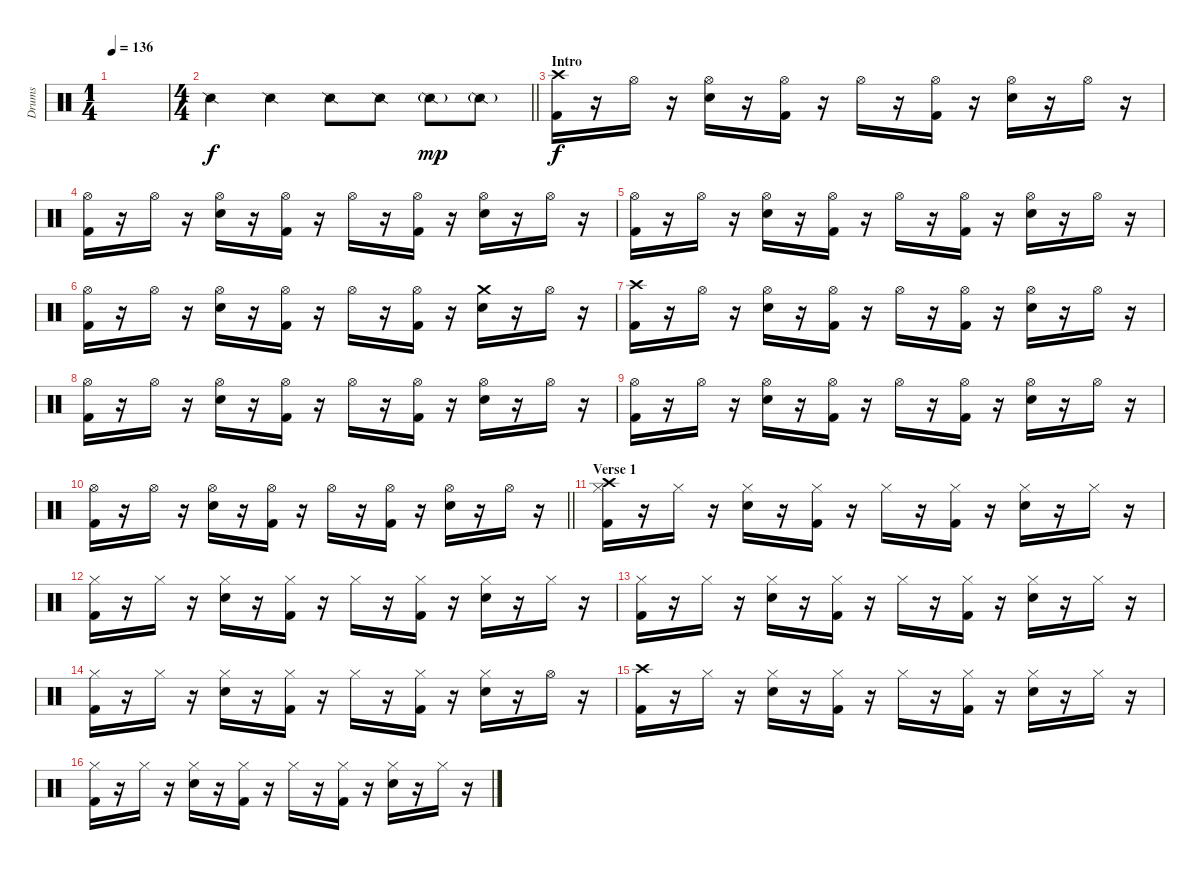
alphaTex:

\track ("Drums" "Drums") {instrument percussion}
\staff {score}
\articulation defaults
\ts (1 4)
\tempo 136
\clef neutral
\ks c
|
\ts (4 4)
\barLineRight lightlight "Snare (side stick) 2".4 "Snare (side stick) 2".4 "Snare (side stick) 2".8 "Snare (side stick) 2".8 "Snare (side stick) 2"{g}.8{dy mp} "Snare (side stick) 2"{g}.8
|
\section ("" "Intro")
("Kick (hit) 2" "Crash high (hit)").16{dy f} r.16 "Hi-Hat (open)".16 r.16 ("Electric Snare (hit)" "Hi-Hat (open)").16 r.16 ("Kick (hit) 2" "Hi-Hat (open)").16 r.16 "Hi-Hat (open)".16 r.16 ("Kick (hit) 2" "Hi-Hat (open)").16 r.16 ("Electric Snare (hit)" "Hi-Hat (open)").16 r.16 "Hi-Hat (open)".16 r.16 |
("Kick (hit) 2" "Hi-Hat (open)").16 r.16 "Hi-Hat (open)".16 r.16 ("Electric Snare (hit)" "Hi-Hat (open)").16 r.16 ("Kick (hit) 2" "Hi-Hat (open)").16 r.16 "Hi-Hat (open)".16 r.16 ("Kick (hit) 2" "Hi-Hat (open)").16 r.16 ("Electric Snare (hit)" "Hi-Hat (open)").16 r.16 "Hi-Hat (open)".16 r.16 |
("Kick (hit) 2" "Hi-Hat (open)").16 r.16 "Hi-Hat (open)".16 r.16 ("Electric Snare (hit)" "Hi-Hat (open)").16 r.16 ("Kick (hit) 2" "Hi-Hat (open)").16 r.16 "Hi-Hat (open)".16 r.16 ("Kick (hit) 2" "Hi-Hat (open)").16 r.16 ("Electric Snare (hit)" "Hi-Hat (open)").16 r.16 "Hi-Hat (open)".16 r.16 |
("Kick (hit) 2" "Hi-Hat (open)").16 r.16 "Hi-Hat (open)".16 r.16 ("Electric Snare (hit)" "Hi-Hat (open)").16 r.16 ("Kick (hit) 2" "Hi-Hat (open)").16 r.16 "Hi-Hat (open)".16 r.16 ("Kick (hit) 2" "Hi-Hat (open)").16 r.16 ("Electric Snare (hit)" "Crash medium (hit)").16 r.16 "Hi-Hat (open)".16 r.16 |
("Kick (hit) 2" "Crash high (hit)").16 r.16 "Hi-Hat (open)".16 r.16 ("Electric Snare (hit)" "Hi-Hat (open)").16 r.16 ("Kick (hit) 2" "Hi-Hat (open)").16 r.16 "Hi-Hat (open)".16 r.16 ("Kick (hit) 2" "Hi-Hat (open)").16 r.16 ("Electric Snare (hit)" "Hi-Hat (open)").16 r.16 "Hi-Hat (open)".16 r.16 |
("Kick (hit) 2" "Hi-Hat (open)").16 r.16 "Hi-Hat (open)".16 r.16 ("Electric Snare (hit)" "Hi-Hat (open)").16 r.16 ("Kick (hit) 2" "Hi-Hat (open)").16 r.16 "Hi-Hat (open)".16 r.16 ("Kick (hit) 2" "Hi-Hat (open)").16 r.16 ("Electric Snare (hit)" "Hi-Hat (open)").16 r.16 "Hi-Hat (open)".16 r.16 |
("Kick (hit) 2" "Hi-Hat (open)").16 r.16 "Hi-Hat (open)".16 r.16 ("Electric Snare (hit)" "Hi-Hat (open)").16 r.16 ("Kick (hit) 2" "Hi-Hat (open)").16 r.16 "Hi-Hat (open)".16 r.16 ("Kick (hit) 2" "Hi-Hat (open)").16 r.16 ("Electric Snare (hit)" "Hi-Hat (open)").16 r.16 "Hi-Hat (open)".16 r.16 |
\barLineRight lightlight
("Kick (hit) 2" "Hi-Hat (open)").16 r.16 "Hi-Hat (open)".16 r.16 ("Electric Snare (hit)" "Hi-Hat (open)").16 r.16 ("Kick (hit) 2" "Hi-Hat (open)").16 r.16 "Hi-Hat (open)".16 r.16 ("Kick (hit) 2" "Hi-Hat (open)").16 r.16 ("Electric Snare (hit)" "Hi-Hat (open)").16 r.16 "Hi-Hat (open)".16 r.16 |
\section ("" "Verse 1")
("Kick (hit) 2" "Hi-Hat (closed)" "Crash high (hit)").16 r.16 "Hi-Hat (closed)".16 r.16 ("Electric Snare (hit)" "Hi-Hat (closed)").16 r.16 ("Kick (hit) 2" "Hi-Hat (closed)").16 r.16 "Hi-Hat (closed)".16 r.16 ("Kick (hit) 2" "Hi-Hat (closed)").16 r.16 ("Electric Snare (hit)" "Hi-Hat (closed)").16 r.16 "Hi-Hat (closed)".16 r.16 |
("Kick (hit) 2" "Hi-Hat (closed)").16 r.16 "Hi-Hat (closed)".16 r.16 ("Electric Snare (hit)" "Hi-Hat (closed)").16 r.16 ("Kick (hit) 2" "Hi-Hat (closed)").16 r.16 "Hi-Hat (closed)".16 r.16 ("Kick (hit) 2" "Hi-Hat (closed)").16 r.16 ("Electric Snare (hit)" "Hi-Hat (closed)").16 r.16 "Hi-Hat (closed)".16 r.16 |
("Kick (hit) 2" "Hi-Hat (closed)").16 r.16 "Hi-Hat (closed)".16 r.16 ("Electric Snare (hit)" "Hi-Hat (closed)").16 r.16 ("Kick (hit) 2" "Hi-Hat (closed)").16 r.16 "Hi-Hat (closed)".16 r.16 ("Kick (hit) 2" "Hi-Hat (closed)").16 r.16 ("Electric Snare (hit)" "Hi-Hat (closed)").16 r.16 "Hi-Hat (closed)".16 r.16 |
("Kick (hit) 2" "Hi-Hat (closed)").16 r.16 "Hi-Hat (closed)".16 r.16 ("Electric Snare (hit)" "Hi-Hat (closed)").16 r.16 ("Kick (hit) 2" "Hi-Hat (closed)").16 r.16 "Hi-Hat (closed)".16 r.16 ("Kick (hit) 2" "Hi-Hat (closed)").16 r.16 ("Electric Snare (hit)" "Hi-Hat (closed)").16 r.16 "Hi-Hat (open)".16 r.16 |
("Kick (hit) 2" "Crash high (hit)").16 r.16 "Hi-Hat (closed)".16 r.16 ("Electric Snare (hit)" "Hi-Hat (closed)").16 r.16 ("Kick (hit) 2" "Hi-Hat (closed)").16 r.16 "Hi-Hat (closed)".16 r.16 ("Kick (hit) 2" "Hi-Hat (closed)").16 r.16 ("Electric Snare (hit)" "Hi-Hat (closed)").16 r.16 "Hi-Hat (closed)".16 r.16 |
("Kick (hit) 2" "Hi-Hat (closed)").16 r.16 "Hi-Hat (closed)".16 r.16 ("Electric Snare (hit)" "Hi-Hat (closed)").16 r.16 ("Kick (hit) 2" "Hi-Hat (closed)").16 r.16 "Hi-Hat (closed)".16 r.16 ("Kick (hit) 2" "Hi-Hat (closed)").16 r.16 ("Electric Snare (hit)" "Hi-Hat (closed)").16 r.16 "Hi-Hat (closed)".16 r.16
